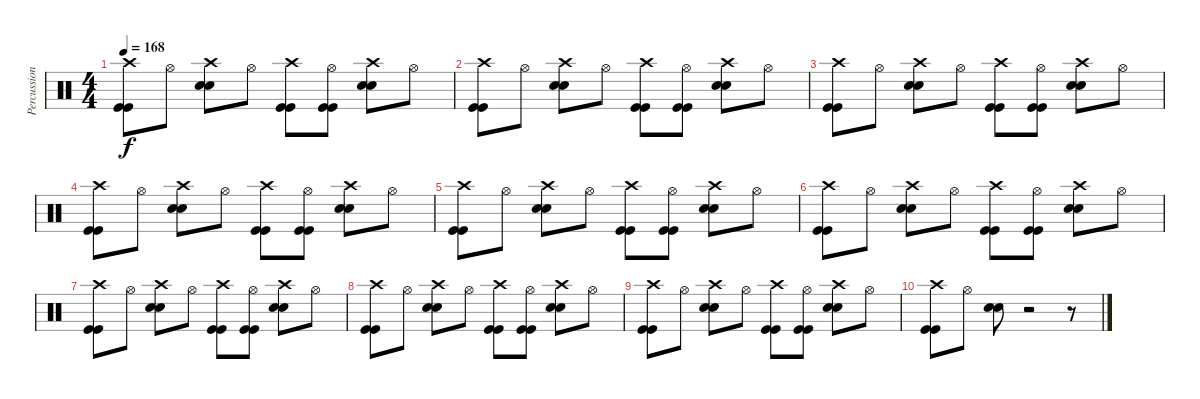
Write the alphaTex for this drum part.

\track ("Percussion" "Percussion") {instrument percussion}
\staff {score}
\articulation defaults
\ts (4 4)
\tempo 168
\clef neutral
\ks c
("Crash high (hit)" "Kick (hit)" "Kick (hit)").8{dy f} "Hi-Hat (open)".8 ("Crash high (hit)" "Snare (hit) 2" "Snare (hit) 2").8 "Hi-Hat (open)".8 ("Crash high (hit)" "Kick (hit)" "Kick (hit)").8 ("Hi-Hat (open)" "Kick (hit)" "Kick (hit)").8 ("Crash high (hit)" "Snare (hit) 2" "Snare (hit) 2").8 "Hi-Hat (open)".8 |
("Crash high (hit)" "Kick (hit)" "Kick (hit)").8 "Hi-Hat (open)".8 ("Crash high (hit)" "Snare (hit) 2" "Snare (hit) 2").8 "Hi-Hat (open)".8 ("Crash high (hit)" "Kick (hit)" "Kick (hit)").8 ("Hi-Hat (open)" "Kick (hit)" "Kick (hit)").8 ("Crash high (hit)" "Snare (hit) 2" "Snare (hit) 2").8 "Hi-Hat (open)".8 |
("Crash high (hit)" "Kick (hit)" "Kick (hit)").8 "Hi-Hat (open)".8 ("Crash high (hit)" "Snare (hit) 2" "Snare (hit) 2").8 "Hi-Hat (open)".8 ("Crash high (hit)" "Kick (hit)" "Kick (hit)").8 ("Hi-Hat (open)" "Kick (hit)" "Kick (hit)").8 ("Crash high (hit)" "Snare (hit) 2" "Snare (hit) 2").8 "Hi-Hat (open)".8 |
("Crash high (hit)" "Kick (hit)" "Kick (hit)").8 "Hi-Hat (open)".8 ("Crash high (hit)" "Snare (hit) 2" "Snare (hit) 2").8 "Hi-Hat (open)".8 ("Crash high (hit)" "Kick (hit)" "Kick (hit)").8 ("Hi-Hat (open)" "Kick (hit)" "Kick (hit)").8 ("Crash high (hit)" "Snare (hit) 2" "Snare (hit) 2").8 "Hi-Hat (open)".8 |
("Crash high (hit)" "Kick (hit)" "Kick (hit)").8 "Hi-Hat (open)".8 ("Crash high (hit)" "Snare (hit) 2" "Snare (hit) 2").8 "Hi-Hat (open)".8 ("Crash high (hit)" "Kick (hit)" "Kick (hit)").8 ("Hi-Hat (open)" "Kick (hit)" "Kick (hit)").8 ("Crash high (hit)" "Snare (hit) 2" "Snare (hit) 2").8 "Hi-Hat (open)".8 |
("Crash high (hit)" "Kick (hit)" "Kick (hit)").8 "Hi-Hat (open)".8 ("Crash high (hit)" "Snare (hit) 2" "Snare (hit) 2").8 "Hi-Hat (open)".8 ("Crash high (hit)" "Kick (hit)" "Kick (hit)").8 ("Hi-Hat (open)" "Kick (hit)" "Kick (hit)").8 ("Crash high (hit)" "Snare (hit) 2" "Snare (hit) 2").8 "Hi-Hat (open)".8 |
("Crash high (hit)" "Kick (hit)" "Kick (hit)").8 "Hi-Hat (open)".8 ("Crash high (hit)" "Snare (hit) 2" "Snare (hit) 2").8 "Hi-Hat (open)".8 ("Crash high (hit)" "Kick (hit)" "Kick (hit)").8 ("Hi-Hat (open)" "Kick (hit)" "Kick (hit)").8 ("Crash high (hit)" "Snare (hit) 2" "Snare (hit) 2").8 "Hi-Hat (open)".8 |
("Crash high (hit)" "Kick (hit)" "Kick (hit)").8 "Hi-Hat (open)".8 ("Crash high (hit)" "Snare (hit) 2" "Snare (hit) 2").8 "Hi-Hat (open)".8 ("Crash high (hit)" "Kick (hit)" "Kick (hit)").8 ("Hi-Hat (open)" "Kick (hit)" "Kick (hit)").8 ("Crash high (hit)" "Snare (hit) 2" "Snare (hit) 2").8 "Hi-Hat (open)".8 |
("Crash high (hit)" "Kick (hit)" "Kick (hit)").8 "Hi-Hat (open)".8 ("Crash high (hit)" "Snare (hit) 2" "Snare (hit) 2").8 "Hi-Hat (open)".8 ("Crash high (hit)" "Kick (hit)" "Kick (hit)").8 ("Hi-Hat (open)" "Kick (hit)" "Kick (hit)").8 ("Crash high (hit)" "Snare (hit) 2" "Snare (hit) 2").8 "Hi-Hat (open)".8 |
("Crash high (hit)" "Kick (hit)" "Kick (hit)").8 "Hi-Hat (open)".8 ("Snare (hit) 2" "Snare (hit) 2").8 r.2 r.8
